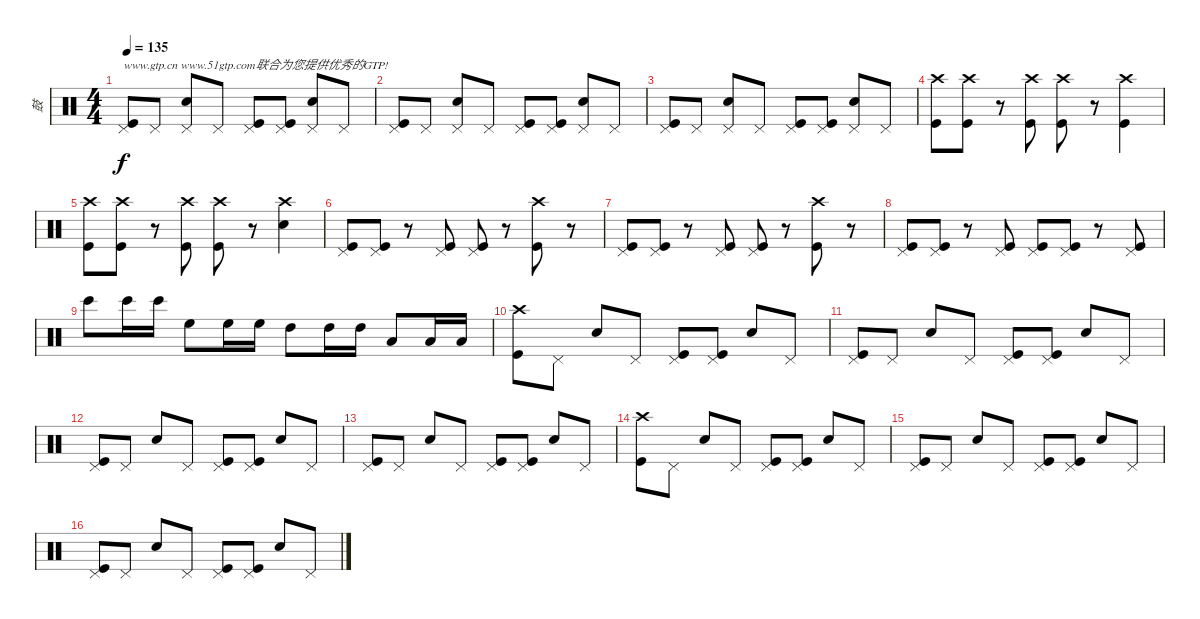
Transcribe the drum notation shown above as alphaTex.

\track ("鼓" "鼓") {instrument percussion}
\staff {score}
\articulation defaults
\ts (4 4)
\tempo 135
\clef neutral
\ks c
("Pedal Hi-Hat (hit)" "Kick (hit)").8{txt "www.gtp.cn www.51gtp.com联合为您提供优秀的GTP!" dy f} "Pedal Hi-Hat (hit)".8 ("Pedal Hi-Hat (hit)" "Snare (hit) 2").8 "Pedal Hi-Hat (hit)".8 ("Pedal Hi-Hat (hit)" "Kick (hit)").8 ("Pedal Hi-Hat (hit)" "Kick (hit)").8 ("Pedal Hi-Hat (hit)" "Snare (hit) 2").8 "Pedal Hi-Hat (hit)".8 |
("Pedal Hi-Hat (hit)" "Kick (hit)").8 "Pedal Hi-Hat (hit)".8 ("Pedal Hi-Hat (hit)" "Snare (hit) 2").8 "Pedal Hi-Hat (hit)".8 ("Pedal Hi-Hat (hit)" "Kick (hit)").8 ("Pedal Hi-Hat (hit)" "Kick (hit)").8 ("Pedal Hi-Hat (hit)" "Snare (hit) 2").8 "Pedal Hi-Hat (hit)".8 |
("Pedal Hi-Hat (hit)" "Kick (hit)").8 "Pedal Hi-Hat (hit)".8 ("Pedal Hi-Hat (hit)" "Snare (hit) 2").8 "Pedal Hi-Hat (hit)".8 ("Pedal Hi-Hat (hit)" "Kick (hit)").8 ("Pedal Hi-Hat (hit)" "Kick (hit)").8 ("Pedal Hi-Hat (hit)" "Snare (hit) 2").8 "Pedal Hi-Hat (hit)".8 |
("Crash high (hit)" "Kick (hit)").8 ("Crash high (hit)" "Kick (hit)").8 r.8 ("Crash high (hit)" "Kick (hit)").8 ("Crash high (hit)" "Kick (hit)").8 r.8 ("Crash high (hit)" "Kick (hit)").4 |
("Crash high (hit)" "Kick (hit)").8 ("Crash high (hit)" "Kick (hit)").8 r.8 ("Crash high (hit)" "Kick (hit)").8 ("Crash high (hit)" "Kick (hit)").8 r.8 ("Crash high (hit)" "Snare (hit) 2").4 |
("Pedal Hi-Hat (hit)" "Kick (hit)").8 ("Pedal Hi-Hat (hit)" "Kick (hit)").8 r.8 ("Pedal Hi-Hat (hit)" "Kick (hit)").8 ("Pedal Hi-Hat (hit)" "Kick (hit)").8 r.8 ("Crash high (hit)" "Kick (hit)").8 r.8 |
("Pedal Hi-Hat (hit)" "Kick (hit)").8 ("Pedal Hi-Hat (hit)" "Kick (hit)").8 r.8 ("Pedal Hi-Hat (hit)" "Kick (hit)").8 ("Pedal Hi-Hat (hit)" "Kick (hit)").8 r.8 ("Crash high (hit)" "Kick (hit)").8 r.8 |
("Pedal Hi-Hat (hit)" "Kick (hit)").8 ("Pedal Hi-Hat (hit)" "Kick (hit)").8 r.8 ("Pedal Hi-Hat (hit)" "Kick (hit)").8 ("Pedal Hi-Hat (hit)" "Kick (hit)").8 ("Pedal Hi-Hat (hit)" "Kick (hit)").8 r.8 ("Pedal Hi-Hat (hit)" "Kick (hit)").8 |
"Bongo High (hit)".8 "Bongo High (hit)".16 "Bongo High (hit)".16 "High Floor Tom (hit)".8 "High Floor Tom (hit)".16 "High Floor Tom (hit)".16 "High Tom (hit)".8 "High Tom (hit)".16 "High Tom (hit)".16 "Low Tom (hit)".8 "Low Tom (hit)".16 "Low Tom (hit)".16 |
("Crash high (hit)" "Kick (hit)").8 "Pedal Hi-Hat (hit)".8 "Snare (hit) 2".8 "Pedal Hi-Hat (hit)".8 ("Pedal Hi-Hat (hit)" "Kick (hit)").8 ("Pedal Hi-Hat (hit)" "Kick (hit)").8 "Snare (hit) 2".8 "Pedal Hi-Hat (hit)".8 |
("Pedal Hi-Hat (hit)" "Kick (hit)").8 "Pedal Hi-Hat (hit)".8 "Snare (hit) 2".8 "Pedal Hi-Hat (hit)".8 ("Pedal Hi-Hat (hit)" "Kick (hit)").8 ("Pedal Hi-Hat (hit)" "Kick (hit)").8 "Snare (hit) 2".8 "Pedal Hi-Hat (hit)".8 |
("Pedal Hi-Hat (hit)" "Kick (hit)").8 "Pedal Hi-Hat (hit)".8 "Snare (hit) 2".8 "Pedal Hi-Hat (hit)".8 ("Pedal Hi-Hat (hit)" "Kick (hit)").8 ("Pedal Hi-Hat (hit)" "Kick (hit)").8 "Snare (hit) 2".8 "Pedal Hi-Hat (hit)".8 |
("Pedal Hi-Hat (hit)" "Kick (hit)").8 "Pedal Hi-Hat (hit)".8 "Snare (hit) 2".8 "Pedal Hi-Hat (hit)".8 ("Pedal Hi-Hat (hit)" "Kick (hit)").8 ("Pedal Hi-Hat (hit)" "Kick (hit)").8 "Snare (hit) 2".8 "Pedal Hi-Hat (hit)".8 |
("Crash high (hit)" "Kick (hit)").8 "Pedal Hi-Hat (hit)".8 "Snare (hit) 2".8 "Pedal Hi-Hat (hit)".8 ("Pedal Hi-Hat (hit)" "Kick (hit)").8 ("Pedal Hi-Hat (hit)" "Kick (hit)").8 "Snare (hit) 2".8 "Pedal Hi-Hat (hit)".8 |
("Pedal Hi-Hat (hit)" "Kick (hit)").8 "Pedal Hi-Hat (hit)".8 "Snare (hit) 2".8 "Pedal Hi-Hat (hit)".8 ("Pedal Hi-Hat (hit)" "Kick (hit)").8 ("Pedal Hi-Hat (hit)" "Kick (hit)").8 "Snare (hit) 2".8 "Pedal Hi-Hat (hit)".8 |
("Pedal Hi-Hat (hit)" "Kick (hit)").8 "Pedal Hi-Hat (hit)".8 "Snare (hit) 2".8 "Pedal Hi-Hat (hit)".8 ("Pedal Hi-Hat (hit)" "Kick (hit)").8 ("Pedal Hi-Hat (hit)" "Kick (hit)").8 "Snare (hit) 2".8 "Pedal Hi-Hat (hit)".8
